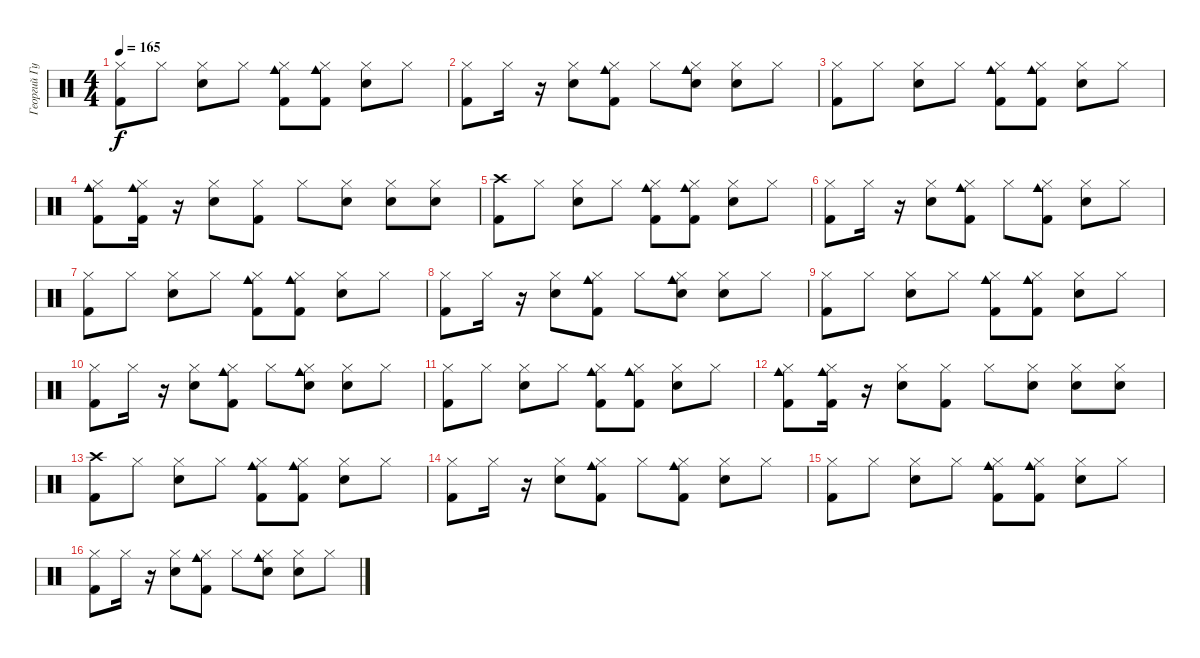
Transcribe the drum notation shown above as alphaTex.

\track ("Георгий Гурьянов" "Георгий Гу") {instrument percussion}
\staff {score}
\articulation defaults
\ts (4 4)
\tempo 165
\clef neutral
\ks c
("Hi-Hat (closed)" "Kick (hit) 2").8{dy f} "Hi-Hat (closed)".8 ("Hi-Hat (closed)" "Snare (hit) 2").8 "Hi-Hat (closed)".8 ("Hi-Hat (closed)" "Cowbell medium (hit)" "Kick (hit) 2").8 ("Hi-Hat (closed)" "Cowbell medium (hit)" "Kick (hit) 2").8 ("Hi-Hat (closed)" "Snare (hit) 2").8 "Hi-Hat (closed)".8 |
("Hi-Hat (closed)" "Kick (hit) 2").8 "Hi-Hat (closed)".16 r.16 ("Hi-Hat (closed)" "Snare (hit) 2").8 ("Hi-Hat (closed)" "Kick (hit) 2" "Cowbell medium (hit)").8 "Hi-Hat (closed)".8 ("Hi-Hat (closed)" "Hand Clap (hit)" "Cowbell medium (hit)").8 ("Hi-Hat (closed)" "Snare (hit) 2").8 "Hi-Hat (closed)".8 |
("Hi-Hat (closed)" "Kick (hit) 2").8 "Hi-Hat (closed)".8 ("Hi-Hat (closed)" "Snare (hit) 2").8 "Hi-Hat (closed)".8 ("Hi-Hat (closed)" "Cowbell medium (hit)" "Kick (hit) 2").8 ("Hi-Hat (closed)" "Cowbell medium (hit)" "Kick (hit) 2").8 ("Hi-Hat (closed)" "Snare (hit) 2").8 "Hi-Hat (closed)".8 |
("Cowbell medium (hit)" "Hi-Hat (closed)" "Kick (hit) 2").8 ("Cowbell medium (hit)" "Kick (hit) 2" "Hi-Hat (closed)").16 r.16 ("Hi-Hat (closed)" "Snare (hit) 2").8 ("Hi-Hat (closed)" "Kick (hit) 2").8 "Hi-Hat (closed)".8 ("Hi-Hat (closed)" "Snare (hit) 2").8 ("Hi-Hat (closed)" "Snare (hit) 2").8 ("Snare (hit) 2" "Hi-Hat (closed)").8 |
("Crash high (hit)" "Kick (hit) 2").8 "Hi-Hat (closed)".8 ("Hi-Hat (closed)" "Snare (hit) 2").8 "Hi-Hat (closed)".8 ("Hi-Hat (closed)" "Cowbell medium (hit)" "Kick (hit) 2").8 ("Hi-Hat (closed)" "Cowbell medium (hit)" "Kick (hit) 2").8 ("Hi-Hat (closed)" "Snare (hit) 2").8 "Hi-Hat (closed)".8 |
("Hi-Hat (closed)" "Kick (hit) 2").8 "Hi-Hat (closed)".16 r.16 ("Hi-Hat (closed)" "Snare (hit) 2").8 ("Hi-Hat (closed)" "Kick (hit) 2" "Cowbell medium (hit)").8 "Hi-Hat (closed)".8 ("Hi-Hat (closed)" "Kick (hit) 2" "Cowbell medium (hit)").8 ("Hi-Hat (closed)" "Snare (hit) 2").8 "Hi-Hat (closed)".8 |
("Hi-Hat (closed)" "Kick (hit) 2").8 "Hi-Hat (closed)".8 ("Hi-Hat (closed)" "Snare (hit) 2").8 "Hi-Hat (closed)".8 ("Hi-Hat (closed)" "Cowbell medium (hit)" "Kick (hit) 2").8 ("Hi-Hat (closed)" "Cowbell medium (hit)" "Kick (hit) 2").8 ("Hi-Hat (closed)" "Snare (hit) 2").8 "Hi-Hat (closed)".8 |
("Hi-Hat (closed)" "Kick (hit) 2").8 "Hi-Hat (closed)".16 r.16 ("Hi-Hat (closed)" "Snare (hit) 2").8 ("Hi-Hat (closed)" "Kick (hit) 2" "Cowbell medium (hit)").8 "Hi-Hat (closed)".8 ("Hi-Hat (closed)" "Hand Clap (hit)" "Cowbell medium (hit)").8 ("Hi-Hat (closed)" "Snare (hit) 2").8 "Hi-Hat (closed)".8 |
("Hi-Hat (closed)" "Kick (hit) 2").8 "Hi-Hat (closed)".8 ("Hi-Hat (closed)" "Snare (hit) 2").8 "Hi-Hat (closed)".8 ("Hi-Hat (closed)" "Cowbell medium (hit)" "Kick (hit) 2").8 ("Hi-Hat (closed)" "Cowbell medium (hit)" "Kick (hit) 2").8 ("Hi-Hat (closed)" "Snare (hit) 2").8 "Hi-Hat (closed)".8 |
("Hi-Hat (closed)" "Kick (hit) 2").8 "Hi-Hat (closed)".16 r.16 ("Hi-Hat (closed)" "Snare (hit) 2").8 ("Hi-Hat (closed)" "Kick (hit) 2" "Cowbell medium (hit)").8 "Hi-Hat (closed)".8 ("Hi-Hat (closed)" "Hand Clap (hit)" "Cowbell medium (hit)").8 ("Hi-Hat (closed)" "Snare (hit) 2").8 "Hi-Hat (closed)".8 |
("Hi-Hat (closed)" "Kick (hit) 2").8 "Hi-Hat (closed)".8 ("Hi-Hat (closed)" "Snare (hit) 2").8 "Hi-Hat (closed)".8 ("Hi-Hat (closed)" "Cowbell medium (hit)" "Kick (hit) 2").8 ("Hi-Hat (closed)" "Cowbell medium (hit)" "Kick (hit) 2").8 ("Hi-Hat (closed)" "Snare (hit) 2").8 "Hi-Hat (closed)".8 |
("Cowbell medium (hit)" "Hi-Hat (closed)" "Kick (hit) 2").8 ("Cowbell medium (hit)" "Kick (hit) 2" "Hi-Hat (closed)").16 r.16 ("Hi-Hat (closed)" "Snare (hit) 2").8 ("Hi-Hat (closed)" "Kick (hit) 2").8 "Hi-Hat (closed)".8 ("Hi-Hat (closed)" "Snare (hit) 2").8 ("Hi-Hat (closed)" "Snare (hit) 2").8 ("Snare (hit) 2" "Hi-Hat (closed)").8 |
("Crash high (hit)" "Kick (hit) 2").8 "Hi-Hat (closed)".8 ("Hi-Hat (closed)" "Snare (hit) 2").8 "Hi-Hat (closed)".8 ("Hi-Hat (closed)" "Cowbell medium (hit)" "Kick (hit) 2").8 ("Hi-Hat (closed)" "Cowbell medium (hit)" "Kick (hit) 2").8 ("Hi-Hat (closed)" "Snare (hit) 2").8 "Hi-Hat (closed)".8 |
("Hi-Hat (closed)" "Kick (hit) 2").8 "Hi-Hat (closed)".16 r.16 ("Hi-Hat (closed)" "Snare (hit) 2").8 ("Hi-Hat (closed)" "Kick (hit) 2" "Cowbell medium (hit)").8 "Hi-Hat (closed)".8 ("Hi-Hat (closed)" "Kick (hit) 2" "Cowbell medium (hit)").8 ("Hi-Hat (closed)" "Snare (hit) 2").8 "Hi-Hat (closed)".8 |
("Hi-Hat (closed)" "Kick (hit) 2").8 "Hi-Hat (closed)".8 ("Hi-Hat (closed)" "Snare (hit) 2").8 "Hi-Hat (closed)".8 ("Hi-Hat (closed)" "Cowbell medium (hit)" "Kick (hit) 2").8 ("Hi-Hat (closed)" "Cowbell medium (hit)" "Kick (hit) 2").8 ("Hi-Hat (closed)" "Snare (hit) 2").8 "Hi-Hat (closed)".8 |
("Hi-Hat (closed)" "Kick (hit) 2").8 "Hi-Hat (closed)".16 r.16 ("Hi-Hat (closed)" "Snare (hit) 2").8 ("Hi-Hat (closed)" "Kick (hit) 2" "Cowbell medium (hit)").8 "Hi-Hat (closed)".8 ("Hi-Hat (closed)" "Hand Clap (hit)" "Cowbell medium (hit)").8 ("Hi-Hat (closed)" "Snare (hit) 2").8 "Hi-Hat (closed)".8
